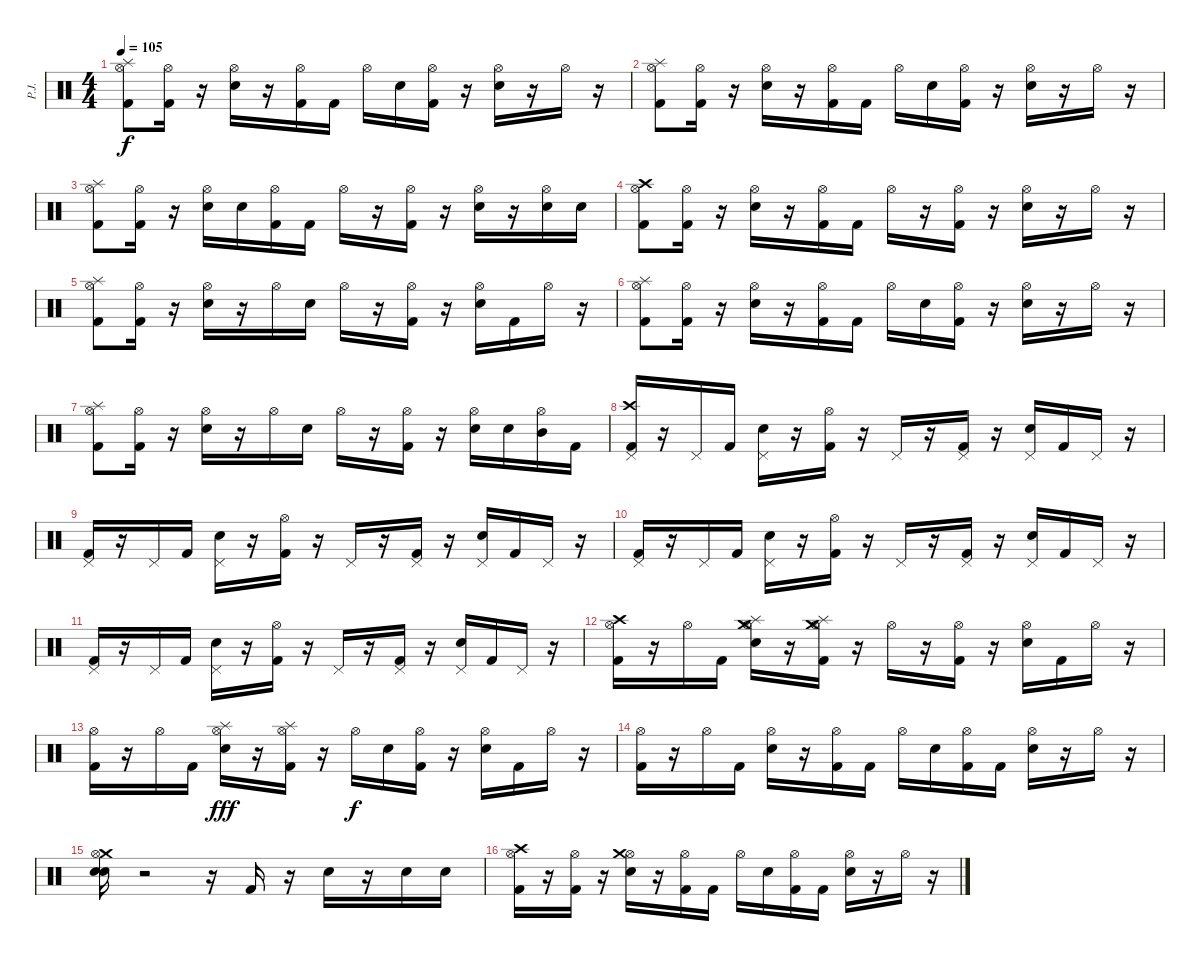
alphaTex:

\track ("P.J." "P.J.") {instrument percussion}
\staff {score}
\articulation defaults
\ts (4 4)
\tempo 105
\clef neutral
\ks c
("Hi-Hat (open)" "Kick (hit) 2" "Splash (hit)").8{dy f} ("Hi-Hat (open)" "Kick (hit) 2").16 r.16 ("Electric Snare (hit)" "Hi-Hat (open)").16 r.16 ("Hi-Hat (open)" "Kick (hit) 2").16 "Kick (hit) 2".16 "Hi-Hat (open)".16 "Electric Snare (hit)".16 ("Hi-Hat (open)" "Kick (hit) 2").16 r.16 ("Hi-Hat (open)" "Electric Snare (hit)").16 r.16 "Hi-Hat (open)".16 r.16 |
("Splash (hit)" "Hi-Hat (open)" "Kick (hit) 2").8 ("Kick (hit) 2" "Hi-Hat (open)").16 r.16 ("Hi-Hat (open)" "Electric Snare (hit)").16 r.16 ("Hi-Hat (open)" "Kick (hit) 2").16 "Kick (hit) 2".16 "Hi-Hat (open)".16 "Electric Snare (hit)".16 ("Hi-Hat (open)" "Kick (hit) 2").16 r.16 ("Electric Snare (hit)" "Hi-Hat (open)").16 r.16 "Hi-Hat (open)".16 r.16 |
("Kick (hit) 2" "Hi-Hat (open)" "Splash (hit)").8 ("Hi-Hat (open)" "Kick (hit) 2").16 r.16 ("Electric Snare (hit)" "Hi-Hat (open)").16 "Electric Snare (hit)".16 ("Hi-Hat (open)" "Kick (hit) 2").16 "Kick (hit) 2".16 "Hi-Hat (open)".16 r.16 ("Kick (hit) 2" "Hi-Hat (open)").16 r.16 ("Electric Snare (hit)" "Hi-Hat (open)").16 r.16 ("Hi-Hat (open)" "Electric Snare (hit)").16 "Electric Snare (hit)".16 |
("Crash high (hit)" "Hi-Hat (open)" "Kick (hit) 2").8 ("Hi-Hat (open)" "Kick (hit) 2").16 r.16 ("Electric Snare (hit)" "Hi-Hat (open)").16 r.16 ("Hi-Hat (open)" "Kick (hit) 2").16 "Kick (hit) 2".16 "Hi-Hat (open)".16 r.16 ("Kick (hit) 2" "Hi-Hat (open)").16 r.16 ("Electric Snare (hit)" "Hi-Hat (open)").16 r.16 "Hi-Hat (open)".16 r.16 |
("Splash (hit)" "Kick (hit) 2" "Hi-Hat (open)").8 ("Hi-Hat (open)" "Kick (hit) 2").16 r.16 ("Hi-Hat (open)" "Electric Snare (hit)").16 r.16 "Hi-Hat (open)".16 "Electric Snare (hit)".16 "Hi-Hat (open)".16 r.16 ("Kick (hit) 2" "Hi-Hat (open)").16 r.16 ("Hi-Hat (open)" "Electric Snare (hit)").16 "Kick (hit) 2".16 "Hi-Hat (open)".16 r.16 |
("Splash (hit)" "Hi-Hat (open)" "Kick (hit) 2").8 ("Hi-Hat (open)" "Kick (hit) 2").16 r.16 ("Hi-Hat (open)" "Electric Snare (hit)").16 r.16 ("Hi-Hat (open)" "Kick (hit) 2").16 "Kick (hit) 2".16 "Hi-Hat (open)".16 "Electric Snare (hit)".16 ("Hi-Hat (open)" "Kick (hit) 2").16 r.16 ("Electric Snare (hit)" "Hi-Hat (open)").16 r.16 "Hi-Hat (open)".16 r.16 |
("Kick (hit) 2" "Hi-Hat (open)" "Splash (hit)").8 ("Hi-Hat (open)" "Kick (hit) 2").16 r.16 ("Hi-Hat (open)" "Electric Snare (hit)").16 r.16 "Hi-Hat (open)".16 "Electric Snare (hit)".16 "Hi-Hat (open)".16 r.16 ("Hi-Hat (open)" "Kick (hit) 2").16 r.16 ("Hi-Hat (open)" "Electric Snare (hit)").16 "Electric Snare (hit)".16 ("Hi-Hat (open)" "Mid Tom (hit)").16 "Kick (hit) 2".16 |
("Pedal Hi-Hat (hit)" "Kick (hit) 2" "Crash high (hit)").16 r.16 "Pedal Hi-Hat (hit)".16 "Kick (hit) 2".16 ("Pedal Hi-Hat (hit)" "Electric Snare (hit)").16 r.16 ("Hi-Hat (open)" "Kick (hit) 2").16 r.16 "Pedal Hi-Hat (hit)".16 r.16 ("Kick (hit) 2" "Pedal Hi-Hat (hit)").16 r.16 ("Pedal Hi-Hat (hit)" "Electric Snare (hit)").16 "Kick (hit) 2".16 "Pedal Hi-Hat (hit)".16 r.16 |
("Kick (hit) 2" "Pedal Hi-Hat (hit)").16 r.16 "Pedal Hi-Hat (hit)".16 "Kick (hit) 2".16 ("Pedal Hi-Hat (hit)" "Electric Snare (hit)").16 r.16 ("Hi-Hat (open)" "Kick (hit) 2").16 r.16 "Pedal Hi-Hat (hit)".16 r.16 ("Kick (hit) 2" "Pedal Hi-Hat (hit)").16 r.16 ("Pedal Hi-Hat (hit)" "Electric Snare (hit)").16 "Kick (hit) 2".16 "Pedal Hi-Hat (hit)".16 r.16 |
("Pedal Hi-Hat (hit)" "Kick (hit) 2").16 r.16 "Pedal Hi-Hat (hit)".16 "Kick (hit) 2".16 ("Pedal Hi-Hat (hit)" "Electric Snare (hit)").16 r.16 ("Hi-Hat (open)" "Kick (hit) 2").16 r.16 "Pedal Hi-Hat (hit)".16 r.16 ("Kick (hit) 2" "Pedal Hi-Hat (hit)").16 r.16 ("Pedal Hi-Hat (hit)" "Electric Snare (hit)").16 "Kick (hit) 2".16 "Pedal Hi-Hat (hit)".16 r.16 |
("Kick (hit) 2" "Pedal Hi-Hat (hit)").16 r.16 "Pedal Hi-Hat (hit)".16 "Kick (hit) 2".16 ("Electric Snare (hit)" "Pedal Hi-Hat (hit)").16 r.16 ("Kick (hit) 2" "Hi-Hat (open)").16 r.16 "Pedal Hi-Hat (hit)".16 r.16 ("Kick (hit) 2" "Pedal Hi-Hat (hit)").16 r.16 ("Electric Snare (hit)" "Pedal Hi-Hat (hit)").16 "Kick (hit) 2".16 "Pedal Hi-Hat (hit)".16 r.16 |
("Kick (hit) 2" "Hi-Hat (open)" "Crash high (hit)").16 r.16 "Hi-Hat (open)".16 "Kick (hit) 2".16 ("Hi-Hat (open)" "Electric Snare (hit)" "Splash (hit)" "Crash medium (hit)").16 r.16 ("Kick (hit) 2" "Hi-Hat (open)" "Splash (hit)" "Crash medium (hit)").16 r.16 "Hi-Hat (open)".16 r.16 ("Kick (hit) 2" "Hi-Hat (open)").16 r.16 ("Electric Snare (hit)" "Hi-Hat (open)").16 "Kick (hit) 2".16 "Hi-Hat (open)".16 r.16 |
("Kick (hit) 2" "Hi-Hat (open)").16 r.16 "Hi-Hat (open)".16 "Kick (hit) 2".16 ("Electric Snare (hit)" "Hi-Hat (open)" "Splash (hit)").16{dy fff} r.16 ("Kick (hit) 2" "Hi-Hat (open)" "Splash (hit)").16 r.16 "Hi-Hat (open)".16{dy f} "Electric Snare (hit)".16 ("Kick (hit) 2" "Hi-Hat (open)").16 r.16 ("Electric Snare (hit)" "Hi-Hat (open)").16 "Kick (hit) 2".16 "Hi-Hat (open)".16 r.16 |
("Kick (hit) 2" "Hi-Hat (open)").16 r.16 "Hi-Hat (open)".16 "Kick (hit) 2".16 ("Electric Snare (hit)" "Hi-Hat (open)").16 r.16 ("Kick (hit) 2" "Hi-Hat (open)").16 "Kick (hit) 2".16 "Hi-Hat (open)".16 "Electric Snare (hit)".16 ("Hi-Hat (open)" "Kick (hit) 2").16 "Kick (hit) 2".16 ("Electric Snare (hit)" "Hi-Hat (open)").16 r.16 "Hi-Hat (open)".16 r.16 |
("Crash medium (hit)" "Hi-Hat (open)" "Snare (hit) 2" "Electric Snare (hit)").16 r.2 r.16 "Kick (hit) 2".16 r.16 "Electric Snare (hit)".16 r.16 "Electric Snare (hit)".16 "Electric Snare (hit)".16 |
("Hi-Hat (open)" "Kick (hit) 2" "Crash high (hit)").16 r.16 ("Kick (hit) 2" "Hi-Hat (open)").16 r.16 ("Hi-Hat (open)" "Electric Snare (hit)" "Crash medium (hit)").16 r.16 ("Kick (hit) 2" "Hi-Hat (open)").16 "Kick (hit) 2".16 "Hi-Hat (open)".16 "Electric Snare (hit)".16 ("Kick (hit) 2" "Hi-Hat (open)").16 "Kick (hit) 2".16 ("Hi-Hat (open)" "Electric Snare (hit)").16 r.16 "Hi-Hat (open)".16 r.16
